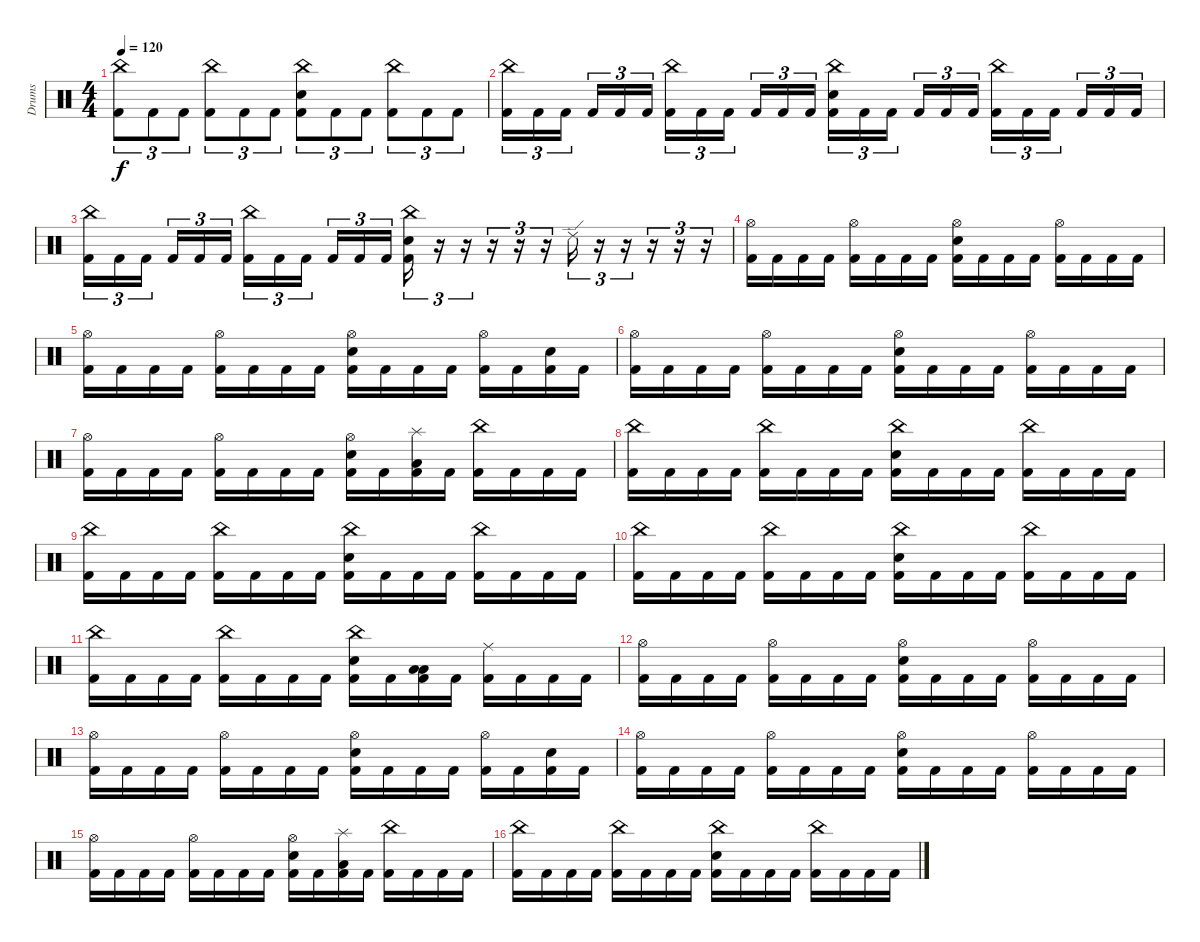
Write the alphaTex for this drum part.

\track ("Drums" "Drums") {instrument percussion}
\staff {score}
\articulation defaults
\ts (4 4)
\tempo 120
\clef neutral
\ks c
("China (hit)" "Kick (hit) 2").8{tu (3 2) dy f} "Kick (hit) 2".8{tu (3 2)} "Kick (hit) 2".8{tu (3 2)} ("China (hit)" "Kick (hit) 2").8{tu (3 2)} "Kick (hit) 2".8{tu (3 2)} "Kick (hit) 2".8{tu (3 2)} ("China (hit)" "Snare (hit) 2" "Kick (hit) 2").8{tu (3 2)} "Kick (hit) 2".8{tu (3 2)} "Kick (hit) 2".8{tu (3 2)} ("China (hit)" "Kick (hit) 2").8{tu (3 2)} "Kick (hit) 2".8{tu (3 2)} "Kick (hit) 2".8{tu (3 2)} |
("China (hit)" "Kick (hit) 2").16{tu (3 2)} "Kick (hit) 2".16{tu (3 2)} "Kick (hit) 2".16{tu (3 2) beam splitsecondary} "Kick (hit) 2".16{tu (3 2)} "Kick (hit) 2".16{tu (3 2)} "Kick (hit) 2".16{tu (3 2)} ("China (hit)" "Kick (hit) 2").16{tu (3 2)} "Kick (hit) 2".16{tu (3 2)} "Kick (hit) 2".16{tu (3 2) beam splitsecondary} "Kick (hit) 2".16{tu (3 2)} "Kick (hit) 2".16{tu (3 2)} "Kick (hit) 2".16{tu (3 2)} ("China (hit)" "Snare (hit) 2" "Kick (hit) 2").16{tu (3 2)} "Kick (hit) 2".16{tu (3 2)} "Kick (hit) 2".16{tu (3 2) beam splitsecondary} "Kick (hit) 2".16{tu (3 2)} "Kick (hit) 2".16{tu (3 2)} "Kick (hit) 2".16{tu (3 2)} ("China (hit)" "Kick (hit) 2").16{tu (3 2)} "Kick (hit) 2".16{tu (3 2)} "Kick (hit) 2".16{tu (3 2) beam splitsecondary} "Kick (hit) 2".16{tu (3 2)} "Kick (hit) 2".16{tu (3 2)} "Kick (hit) 2".16{tu (3 2)} |
("China (hit)" "Kick (hit) 2").16{tu (3 2)} "Kick (hit) 2".16{tu (3 2)} "Kick (hit) 2".16{tu (3 2) beam splitsecondary} "Kick (hit) 2".16{tu (3 2)} "Kick (hit) 2".16{tu (3 2)} "Kick (hit) 2".16{tu (3 2)} ("China (hit)" "Kick (hit) 2").16{tu (3 2)} "Kick (hit) 2".16{tu (3 2)} "Kick (hit) 2".16{tu (3 2) beam splitsecondary} "Kick (hit) 2".16{tu (3 2)} "Kick (hit) 2".16{tu (3 2)} "Kick (hit) 2".16{tu (3 2)} ("China (hit)" "Snare (hit) 2" "Kick (hit) 2").16{tu (3 2)} r.16{tu (3 2)} r.16{tu (3 2)} r.16{tu (3 2)} r.16{tu (3 2)} r.16{tu (3 2)} "Ride (edge) 2".16{tu (3 2)} r.16{tu (3 2)} r.16{tu (3 2)} r.16{tu (3 2)} r.16{tu (3 2)} r.16{tu (3 2)} |
("Hi-Hat (open)" "Kick (hit) 2").16 "Kick (hit) 2".16 "Kick (hit) 2".16 "Kick (hit) 2".16 ("Hi-Hat (open)" "Kick (hit) 2").16 "Kick (hit) 2".16 "Kick (hit) 2".16 "Kick (hit) 2".16 ("Hi-Hat (open)" "Snare (hit) 2" "Kick (hit) 2").16 "Kick (hit) 2".16 "Kick (hit) 2".16 "Kick (hit) 2".16 ("Hi-Hat (open)" "Kick (hit) 2").16 "Kick (hit) 2".16 "Kick (hit) 2".16 "Kick (hit) 2".16 |
("Hi-Hat (open)" "Kick (hit) 2").16 "Kick (hit) 2".16 "Kick (hit) 2".16 "Kick (hit) 2".16 ("Hi-Hat (open)" "Kick (hit) 2").16 "Kick (hit) 2".16 "Kick (hit) 2".16 "Kick (hit) 2".16 ("Hi-Hat (open)" "Snare (hit) 2" "Kick (hit) 2").16 "Kick (hit) 2".16 "Kick (hit) 2".16 "Kick (hit) 2".16 ("Hi-Hat (open)" "Kick (hit) 2").16 "Kick (hit) 2".16 ("Snare (hit) 2" "Kick (hit) 2").16 "Kick (hit) 2".16 |
("Hi-Hat (open)" "Kick (hit) 2").16 "Kick (hit) 2".16 "Kick (hit) 2".16 "Kick (hit) 2".16 ("Hi-Hat (open)" "Kick (hit) 2").16 "Kick (hit) 2".16 "Kick (hit) 2".16 "Kick (hit) 2".16 ("Hi-Hat (open)" "Snare (hit) 2" "Kick (hit) 2").16 "Kick (hit) 2".16 "Kick (hit) 2".16 "Kick (hit) 2".16 ("Hi-Hat (open)" "Kick (hit) 2").16 "Kick (hit) 2".16 "Kick (hit) 2".16 "Kick (hit) 2".16 |
("Hi-Hat (open)" "Kick (hit) 2").16 "Kick (hit) 2".16 "Kick (hit) 2".16 "Kick (hit) 2".16 ("Hi-Hat (open)" "Kick (hit) 2").16 "Kick (hit) 2".16 "Kick (hit) 2".16 "Kick (hit) 2".16 ("Hi-Hat (open)" "Snare (hit) 2" "Kick (hit) 2").16 "Kick (hit) 2".16 ("Splash (hit)" "Low Floor Tom (hit)" "Kick (hit) 2").16 "Kick (hit) 2".16 ("China (hit)" "Kick (hit) 2").16 "Kick (hit) 2".16 "Kick (hit) 2".16 "Kick (hit) 2".16 |
("China (hit)" "Kick (hit) 2").16 "Kick (hit) 2".16 "Kick (hit) 2".16 "Kick (hit) 2".16 ("China (hit)" "Kick (hit) 2").16 "Kick (hit) 2".16 "Kick (hit) 2".16 "Kick (hit) 2".16 ("China (hit)" "Snare (hit) 2" "Kick (hit) 2").16 "Kick (hit) 2".16 "Kick (hit) 2".16 "Kick (hit) 2".16 ("China (hit)" "Kick (hit) 2").16 "Kick (hit) 2".16 "Kick (hit) 2".16 "Kick (hit) 2".16 |
("China (hit)" "Kick (hit) 2").16 "Kick (hit) 2".16 "Kick (hit) 2".16 "Kick (hit) 2".16 ("China (hit)" "Kick (hit) 2").16 "Kick (hit) 2".16 "Kick (hit) 2".16 "Kick (hit) 2".16 ("China (hit)" "Snare (hit) 2" "Kick (hit) 2").16 "Kick (hit) 2".16 "Kick (hit) 2".16 "Kick (hit) 2".16 ("China (hit)" "Kick (hit) 2").16 "Kick (hit) 2".16 "Kick (hit) 2".16 "Kick (hit) 2".16 |
("China (hit)" "Kick (hit) 2").16 "Kick (hit) 2".16 "Kick (hit) 2".16 "Kick (hit) 2".16 ("China (hit)" "Kick (hit) 2").16 "Kick (hit) 2".16 "Kick (hit) 2".16 "Kick (hit) 2".16 ("China (hit)" "Snare (hit) 2" "Kick (hit) 2").16 "Kick (hit) 2".16 "Kick (hit) 2".16 "Kick (hit) 2".16 ("China (hit)" "Kick (hit) 2").16 "Kick (hit) 2".16 "Kick (hit) 2".16 "Kick (hit) 2".16 |
("China (hit)" "Kick (hit) 2").16 "Kick (hit) 2".16 "Kick (hit) 2".16 "Kick (hit) 2".16 ("China (hit)" "Kick (hit) 2").16 "Kick (hit) 2".16 "Kick (hit) 2".16 "Kick (hit) 2".16 ("China (hit)" "Snare (hit) 2" "Kick (hit) 2").16 "Kick (hit) 2".16 ("Low Floor Tom (hit)" "Low Tom (hit)" "Kick (hit) 2").16 "Kick (hit) 2".16 ("Ride (middle)" "Kick (hit) 2").16 "Kick (hit) 2".16 "Kick (hit) 2".16 "Kick (hit) 2".16 |
("Hi-Hat (open)" "Kick (hit) 2").16 "Kick (hit) 2".16 "Kick (hit) 2".16 "Kick (hit) 2".16 ("Hi-Hat (open)" "Kick (hit) 2").16 "Kick (hit) 2".16 "Kick (hit) 2".16 "Kick (hit) 2".16 ("Hi-Hat (open)" "Snare (hit) 2" "Kick (hit) 2").16 "Kick (hit) 2".16 "Kick (hit) 2".16 "Kick (hit) 2".16 ("Hi-Hat (open)" "Kick (hit) 2").16 "Kick (hit) 2".16 "Kick (hit) 2".16 "Kick (hit) 2".16 |
("Hi-Hat (open)" "Kick (hit) 2").16 "Kick (hit) 2".16 "Kick (hit) 2".16 "Kick (hit) 2".16 ("Hi-Hat (open)" "Kick (hit) 2").16 "Kick (hit) 2".16 "Kick (hit) 2".16 "Kick (hit) 2".16 ("Hi-Hat (open)" "Snare (hit) 2" "Kick (hit) 2").16 "Kick (hit) 2".16 "Kick (hit) 2".16 "Kick (hit) 2".16 ("Hi-Hat (open)" "Kick (hit) 2").16 "Kick (hit) 2".16 ("Snare (hit) 2" "Kick (hit) 2").16 "Kick (hit) 2".16 |
("Hi-Hat (open)" "Kick (hit) 2").16 "Kick (hit) 2".16 "Kick (hit) 2".16 "Kick (hit) 2".16 ("Hi-Hat (open)" "Kick (hit) 2").16 "Kick (hit) 2".16 "Kick (hit) 2".16 "Kick (hit) 2".16 ("Hi-Hat (open)" "Snare (hit) 2" "Kick (hit) 2").16 "Kick (hit) 2".16 "Kick (hit) 2".16 "Kick (hit) 2".16 ("Hi-Hat (open)" "Kick (hit) 2").16 "Kick (hit) 2".16 "Kick (hit) 2".16 "Kick (hit) 2".16 |
("Hi-Hat (open)" "Kick (hit) 2").16 "Kick (hit) 2".16 "Kick (hit) 2".16 "Kick (hit) 2".16 ("Hi-Hat (open)" "Kick (hit) 2").16 "Kick (hit) 2".16 "Kick (hit) 2".16 "Kick (hit) 2".16 ("Hi-Hat (open)" "Snare (hit) 2" "Kick (hit) 2").16 "Kick (hit) 2".16 ("Splash (hit)" "Low Floor Tom (hit)" "Kick (hit) 2").16 "Kick (hit) 2".16 ("China (hit)" "Kick (hit) 2").16 "Kick (hit) 2".16 "Kick (hit) 2".16 "Kick (hit) 2".16 |
("China (hit)" "Kick (hit) 2").16 "Kick (hit) 2".16 "Kick (hit) 2".16 "Kick (hit) 2".16 ("China (hit)" "Kick (hit) 2").16 "Kick (hit) 2".16 "Kick (hit) 2".16 "Kick (hit) 2".16 ("China (hit)" "Snare (hit) 2" "Kick (hit) 2").16 "Kick (hit) 2".16 "Kick (hit) 2".16 "Kick (hit) 2".16 ("China (hit)" "Kick (hit) 2").16 "Kick (hit) 2".16 "Kick (hit) 2".16 "Kick (hit) 2".16
